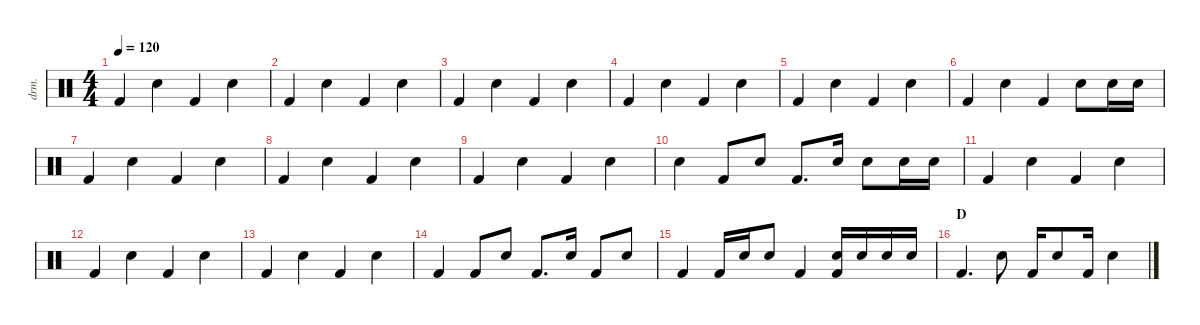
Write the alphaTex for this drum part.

\defaultSystemsLayout 4
\hideDynamics
\bracketExtendMode nobrackets
\otherSystemsTrackNameOrientation horizontal
\track ("Batterie" "drm.") {instrument percussion}
\staff {score}
\articulation defaults
\ts (4 4)
\tempo 120
\clef neutral
\ks c "Kick (hit) 2".4{dy f} "Snare (hit) 2".4 "Kick (hit) 2".4 "Snare (hit) 2".4
|
"Kick (hit) 2".4 "Snare (hit) 2".4 "Kick (hit) 2".4 "Snare (hit) 2".4 |
"Kick (hit) 2".4 "Snare (hit) 2".4 "Kick (hit) 2".4 "Snare (hit) 2".4 |
"Kick (hit) 2".4 "Snare (hit) 2".4 "Kick (hit) 2".4 "Snare (hit) 2".4 |
"Kick (hit) 2".4 "Snare (hit) 2".4 "Kick (hit) 2".4 "Snare (hit) 2".4 |
"Kick (hit) 2".4 "Snare (hit) 2".4 "Kick (hit) 2".4 "Snare (hit) 2".8 "Snare (hit) 2".16 "Snare (hit) 2".16 |
"Kick (hit) 2".4 "Snare (hit) 2".4 "Kick (hit) 2".4 "Snare (hit) 2".4 |
"Kick (hit) 2".4 "Snare (hit) 2".4 "Kick (hit) 2".4 "Snare (hit) 2".4 |
"Kick (hit) 2".4 "Snare (hit) 2".4 "Kick (hit) 2".4 "Snare (hit) 2".4 |
"Snare (hit) 2".4 "Kick (hit) 2".8 "Snare (hit) 2".8 "Kick (hit) 2".8{d} "Snare (hit) 2".16 "Snare (hit) 2".8 "Snare (hit) 2".16 "Snare (hit) 2".16 |
"Kick (hit) 2".4 "Snare (hit) 2".4 "Kick (hit) 2".4 "Snare (hit) 2".4 |
"Kick (hit) 2".4 "Snare (hit) 2".4 "Kick (hit) 2".4 "Snare (hit) 2".4 |
"Kick (hit) 2".4 "Snare (hit) 2".4 "Kick (hit) 2".4 "Snare (hit) 2".4 |
"Kick (hit) 2".4 "Kick (hit) 2".8 "Snare (hit) 2".8 "Kick (hit) 2".8{d} "Snare (hit) 2".16 "Kick (hit) 2".8 "Snare (hit) 2".8 |
"Kick (hit) 2".4 "Kick (hit) 2".16 "Snare (hit) 2".16 "Snare (hit) 2".8 "Kick (hit) 2".4 ("Snare (hit) 2" "Kick (hit) 2").16 "Snare (hit) 2".16 "Snare (hit) 2".16 "Snare (hit) 2".16 |
\section ("" "D")
"Kick (hit) 2".4{d} "Snare (hit) 2".8 "Kick (hit) 2".16 "Snare (hit) 2".8 "Kick (hit) 2".16 "Snare (hit) 2".4
